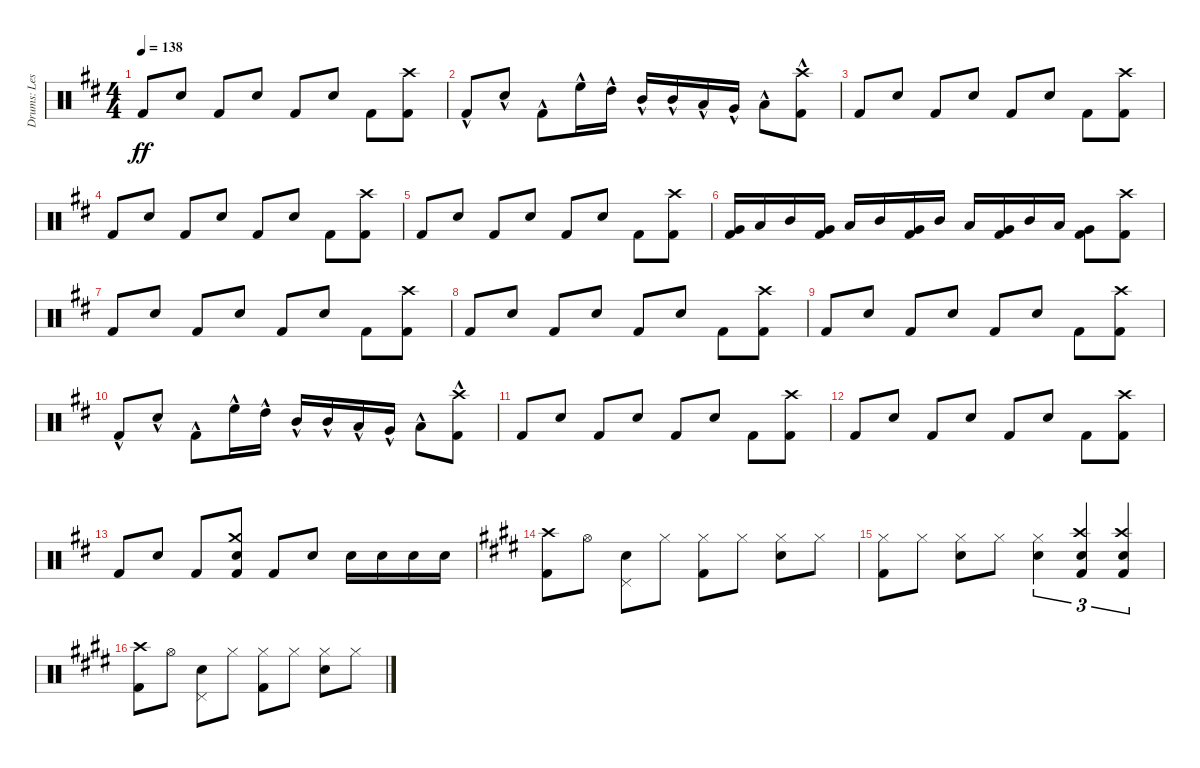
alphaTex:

\track ("Drums: Les" "Drums: Les") {instrument percussion}
\staff {score}
\articulation defaults
\ts (4 4)
\tempo 138
\clef neutral
\ks d "Kick (hit) 2".8{dy ff} "Electric Snare (hit)".8 "Kick (hit) 2".8 "Electric Snare (hit)".8 "Kick (hit) 2".8 "Electric Snare (hit)".8 "Kick (hit) 2".8
("Crash high (hit)" "Kick (hit) 2").8 |
"Kick (hit) 2"{hac}.8 "Electric Snare (hit)"{hac}.8 "Kick (hit) 2"{hac}.8 "High Floor Tom (hit)"{hac}.16 "High Tom (hit)"{hac}.16 "Mid Tom (hit)"{hac}.16 "Mid Tom (hit)"{hac}.16 "Low Tom (hit)"{hac}.16 "Very Low Tom (hit)"{hac}.16 "Low Floor Tom (hit)"{hac}.8 ("Crash high (hit)"{hac} "Kick (hit) 2"{hac}).8 |
"Kick (hit) 2".8 "Electric Snare (hit)".8 "Kick (hit) 2".8 "Electric Snare (hit)".8 "Kick (hit) 2".8 "Electric Snare (hit)".8 "Kick (hit) 2".8 ("Crash high (hit)" "Kick (hit) 2").8 |
"Kick (hit) 2".8 "Electric Snare (hit)".8 "Kick (hit) 2".8 "Electric Snare (hit)".8 "Kick (hit) 2".8 "Electric Snare (hit)".8 "Kick (hit) 2".8 ("Crash high (hit)" "Kick (hit) 2").8 |
"Kick (hit) 2".8 "Electric Snare (hit)".8 "Kick (hit) 2".8 "Electric Snare (hit)".8 "Kick (hit) 2".8 "Electric Snare (hit)".8 "Kick (hit) 2".8 ("Crash high (hit)" "Kick (hit) 2").8 |
("Very Low Tom (hit)" "Kick (hit) 2").16 "Low Tom (hit)".16 "Mid Tom (hit)".16 ("Very Low Tom (hit)" "Kick (hit) 2").16 "Low Tom (hit)".16 "Mid Tom (hit)".16 ("Very Low Tom (hit)" "Kick (hit) 2").16 "Mid Tom (hit)".16 "Low Tom (hit)".16 ("Very Low Tom (hit)" "Kick (hit) 2").16 "Mid Tom (hit)".16 "Low Tom (hit)".16 ("Very Low Tom (hit)" "Kick (hit) 2").8 ("Crash high (hit)" "Kick (hit) 2").8 |
"Kick (hit) 2".8 "Electric Snare (hit)".8 "Kick (hit) 2".8 "Electric Snare (hit)".8 "Kick (hit) 2".8 "Electric Snare (hit)".8 "Kick (hit) 2".8 ("Crash high (hit)" "Kick (hit) 2").8 |
"Kick (hit) 2".8 "Electric Snare (hit)".8 "Kick (hit) 2".8 "Electric Snare (hit)".8 "Kick (hit) 2".8 "Electric Snare (hit)".8 "Kick (hit) 2".8 ("Crash high (hit)" "Kick (hit) 2").8 |
"Kick (hit) 2".8 "Electric Snare (hit)".8 "Kick (hit) 2".8 "Electric Snare (hit)".8 "Kick (hit) 2".8 "Electric Snare (hit)".8 "Kick (hit) 2".8 ("Crash high (hit)" "Kick (hit) 2").8 |
"Kick (hit) 2"{hac}.8 "Electric Snare (hit)"{hac}.8 "Kick (hit) 2"{hac}.8 "High Floor Tom (hit)"{hac}.16 "High Tom (hit)"{hac}.16 "Mid Tom (hit)"{hac}.16 "Mid Tom (hit)"{hac}.16 "Low Tom (hit)"{hac}.16 "Very Low Tom (hit)"{hac}.16 "Low Floor Tom (hit)"{hac}.8 ("Crash high (hit)"{hac} "Kick (hit) 2"{hac}).8 |
"Kick (hit) 2".8 "Electric Snare (hit)".8 "Kick (hit) 2".8 "Electric Snare (hit)".8 "Kick (hit) 2".8 "Electric Snare (hit)".8 "Kick (hit) 2".8 ("Crash high (hit)" "Kick (hit) 2").8 |
"Kick (hit) 2".8 "Electric Snare (hit)".8 "Kick (hit) 2".8 "Electric Snare (hit)".8 "Kick (hit) 2".8 "Electric Snare (hit)".8 "Kick (hit) 2".8 ("Crash high (hit)" "Kick (hit) 2").8 |
"Kick (hit) 2".8 "Electric Snare (hit)".8 "Kick (hit) 2".8 ("Crash medium (hit)" "Snare (hit) 2" "Kick (hit) 2").8 "Kick (hit) 2".8 "Snare (hit) 2".8 "Snare (hit) 2".16 "Snare (hit) 2".16 "Snare (hit) 2".16 "Snare (hit) 2".16 |
\ks e
("Crash high (hit)" "Kick (hit) 2").8 "Hi-Hat (open)".8 ("Pedal Hi-Hat (hit)" "Snare (hit) 2").8 "Hi-Hat (closed)".8 ("Hi-Hat (closed)" "Kick (hit) 2").8 "Hi-Hat (closed)".8 ("Hi-Hat (closed)" "Snare (hit) 2").8 "Hi-Hat (closed)".8 |
("Hi-Hat (closed)" "Kick (hit) 2").8 "Hi-Hat (closed)".8 ("Hi-Hat (closed)" "Snare (hit) 2").8 "Hi-Hat (closed)".8 ("Hi-Hat (closed)" "Snare (hit) 2").4{tu (3 2)} ("Crash high (hit)" "Snare (hit) 2" "Kick (hit) 2").4{tu (3 2)} ("Crash high (hit)" "Snare (hit) 2" "Kick (hit) 2").4{tu (3 2)} |
("Crash high (hit)" "Kick (hit) 2").8 "Hi-Hat (open)".8 ("Pedal Hi-Hat (hit)" "Snare (hit) 2").8 "Hi-Hat (closed)".8 ("Hi-Hat (closed)" "Kick (hit) 2").8 "Hi-Hat (closed)".8 ("Hi-Hat (closed)" "Snare (hit) 2").8 "Hi-Hat (closed)".8
